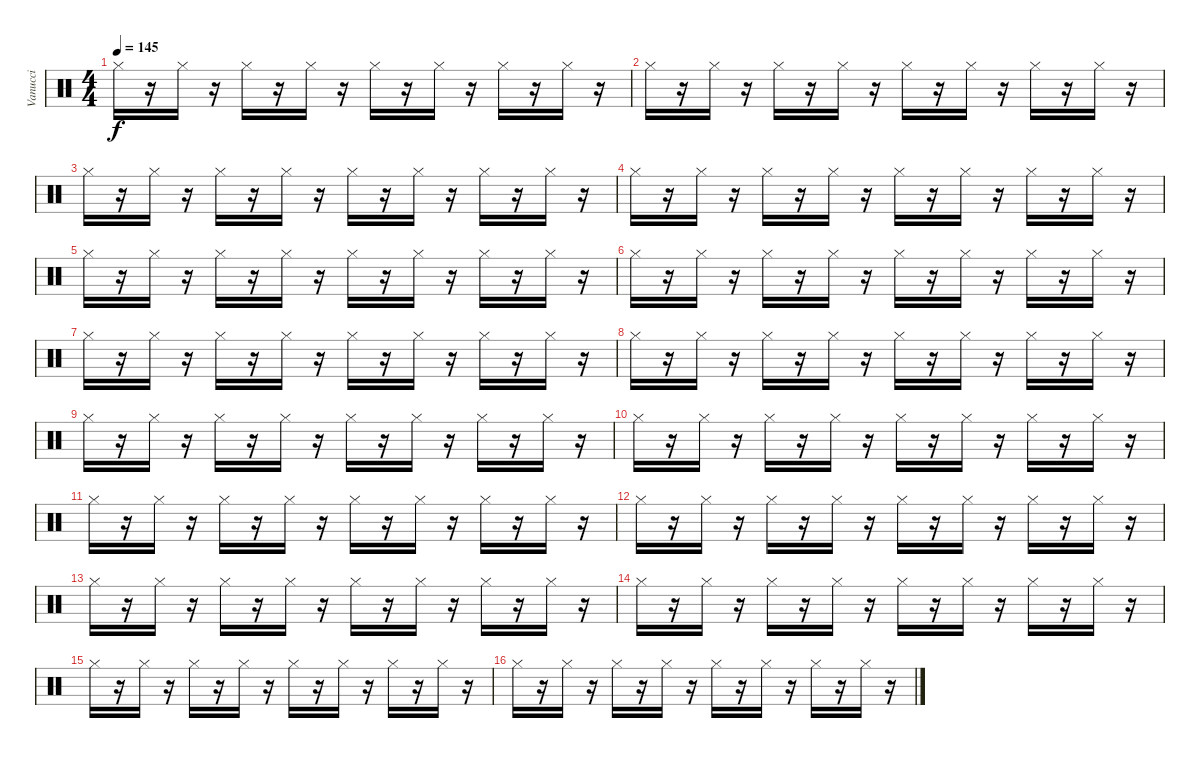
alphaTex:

\track ("Vanucci" "Vanucci") {instrument percussion}
\staff {score}
\articulation defaults
\ts (4 4)
\tempo 145
\clef neutral
\ks c "Hi-Hat (closed)".16{dy f}
r.16 "Hi-Hat (closed)".16 r.16 "Hi-Hat (closed)".16 r.16 "Hi-Hat (closed)".16 r.16 "Hi-Hat (closed)".16 r.16 "Hi-Hat (closed)".16 r.16 "Hi-Hat (closed)".16 r.16 "Hi-Hat (closed)".16 r.16 |
"Hi-Hat (closed)".16 r.16 "Hi-Hat (closed)".16 r.16 "Hi-Hat (closed)".16 r.16 "Hi-Hat (closed)".16 r.16 "Hi-Hat (closed)".16 r.16 "Hi-Hat (closed)".16 r.16 "Hi-Hat (closed)".16 r.16 "Hi-Hat (closed)".16 r.16 |
"Hi-Hat (closed)".16 r.16 "Hi-Hat (closed)".16 r.16 "Hi-Hat (closed)".16 r.16 "Hi-Hat (closed)".16 r.16 "Hi-Hat (closed)".16 r.16 "Hi-Hat (closed)".16 r.16 "Hi-Hat (closed)".16 r.16 "Hi-Hat (closed)".16 r.16 |
"Hi-Hat (closed)".16 r.16 "Hi-Hat (closed)".16 r.16 "Hi-Hat (closed)".16 r.16 "Hi-Hat (closed)".16 r.16 "Hi-Hat (closed)".16 r.16 "Hi-Hat (closed)".16 r.16 "Hi-Hat (closed)".16 r.16 "Hi-Hat (closed)".16 r.16 |
"Hi-Hat (closed)".16 r.16 "Hi-Hat (closed)".16 r.16 "Hi-Hat (closed)".16 r.16 "Hi-Hat (closed)".16 r.16 "Hi-Hat (closed)".16 r.16 "Hi-Hat (closed)".16 r.16 "Hi-Hat (closed)".16 r.16 "Hi-Hat (closed)".16 r.16 |
"Hi-Hat (closed)".16 r.16 "Hi-Hat (closed)".16 r.16 "Hi-Hat (closed)".16 r.16 "Hi-Hat (closed)".16 r.16 "Hi-Hat (closed)".16 r.16 "Hi-Hat (closed)".16 r.16 "Hi-Hat (closed)".16 r.16 "Hi-Hat (closed)".16 r.16 |
"Hi-Hat (closed)".16 r.16 "Hi-Hat (closed)".16 r.16 "Hi-Hat (closed)".16 r.16 "Hi-Hat (closed)".16 r.16 "Hi-Hat (closed)".16 r.16 "Hi-Hat (closed)".16 r.16 "Hi-Hat (closed)".16 r.16 "Hi-Hat (closed)".16 r.16 |
"Hi-Hat (closed)".16 r.16 "Hi-Hat (closed)".16 r.16 "Hi-Hat (closed)".16 r.16 "Hi-Hat (closed)".16 r.16 "Hi-Hat (closed)".16 r.16 "Hi-Hat (closed)".16 r.16 "Hi-Hat (closed)".16 r.16 "Hi-Hat (closed)".16 r.16 |
"Hi-Hat (closed)".16 r.16 "Hi-Hat (closed)".16 r.16 "Hi-Hat (closed)".16 r.16 "Hi-Hat (closed)".16 r.16 "Hi-Hat (closed)".16 r.16 "Hi-Hat (closed)".16 r.16 "Hi-Hat (closed)".16 r.16 "Hi-Hat (closed)".16 r.16 |
"Hi-Hat (closed)".16 r.16 "Hi-Hat (closed)".16 r.16 "Hi-Hat (closed)".16 r.16 "Hi-Hat (closed)".16 r.16 "Hi-Hat (closed)".16 r.16 "Hi-Hat (closed)".16 r.16 "Hi-Hat (closed)".16 r.16 "Hi-Hat (closed)".16 r.16 |
"Hi-Hat (closed)".16 r.16 "Hi-Hat (closed)".16 r.16 "Hi-Hat (closed)".16 r.16 "Hi-Hat (closed)".16 r.16 "Hi-Hat (closed)".16 r.16 "Hi-Hat (closed)".16 r.16 "Hi-Hat (closed)".16 r.16 "Hi-Hat (closed)".16 r.16 |
"Hi-Hat (closed)".16 r.16 "Hi-Hat (closed)".16 r.16 "Hi-Hat (closed)".16 r.16 "Hi-Hat (closed)".16 r.16 "Hi-Hat (closed)".16 r.16 "Hi-Hat (closed)".16 r.16 "Hi-Hat (closed)".16 r.16 "Hi-Hat (closed)".16 r.16 |
"Hi-Hat (closed)".16 r.16 "Hi-Hat (closed)".16 r.16 "Hi-Hat (closed)".16 r.16 "Hi-Hat (closed)".16 r.16 "Hi-Hat (closed)".16 r.16 "Hi-Hat (closed)".16 r.16 "Hi-Hat (closed)".16 r.16 "Hi-Hat (closed)".16 r.16 |
"Hi-Hat (closed)".16 r.16 "Hi-Hat (closed)".16 r.16 "Hi-Hat (closed)".16 r.16 "Hi-Hat (closed)".16 r.16 "Hi-Hat (closed)".16 r.16 "Hi-Hat (closed)".16 r.16 "Hi-Hat (closed)".16 r.16 "Hi-Hat (closed)".16 r.16 |
"Hi-Hat (closed)".16 r.16 "Hi-Hat (closed)".16 r.16 "Hi-Hat (closed)".16 r.16 "Hi-Hat (closed)".16 r.16 "Hi-Hat (closed)".16 r.16 "Hi-Hat (closed)".16 r.16 "Hi-Hat (closed)".16 r.16 "Hi-Hat (closed)".16 r.16 |
"Hi-Hat (closed)".16 r.16 "Hi-Hat (closed)".16 r.16 "Hi-Hat (closed)".16 r.16 "Hi-Hat (closed)".16 r.16 "Hi-Hat (closed)".16 r.16 "Hi-Hat (closed)".16 r.16 "Hi-Hat (closed)".16 r.16 "Hi-Hat (closed)".16 r.16
